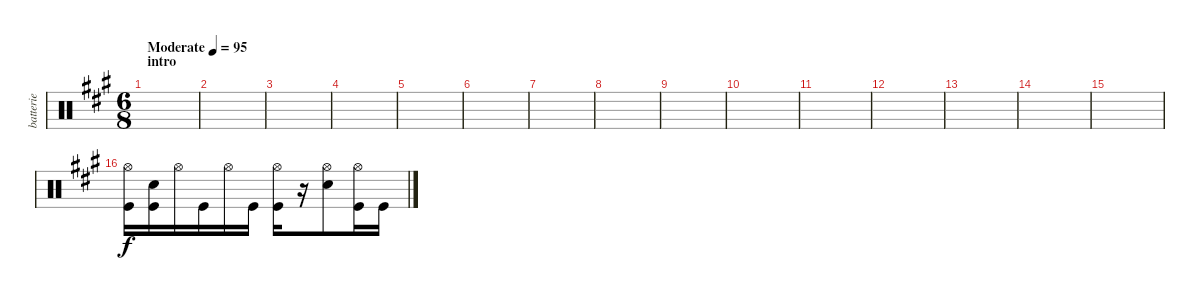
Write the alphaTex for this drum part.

\track ("batterie" "batterie") {instrument percussion}
\staff {score}
\articulation defaults
\ts (6 8)
\section ("" "intro")
\tempo (95 "Moderate")
\clef neutral
\ks a
|
|
|
|
|
|
|
|
|
|
|
|
|
|
|
("Hi-Hat (open)" "Kick (hit)").16 ("Electric Snare (hit)" "Kick (hit)").16 "Hi-Hat (open)".16 "Kick (hit)".16 "Hi-Hat (open)".16 "Kick (hit)".16 ("Hi-Hat (open)" "Kick (hit)").16 r.16 ("Hi-Hat (open)" "Electric Snare (hit)").8 ("Hi-Hat (open)" "Kick (hit)").16 "Kick (hit)".16
